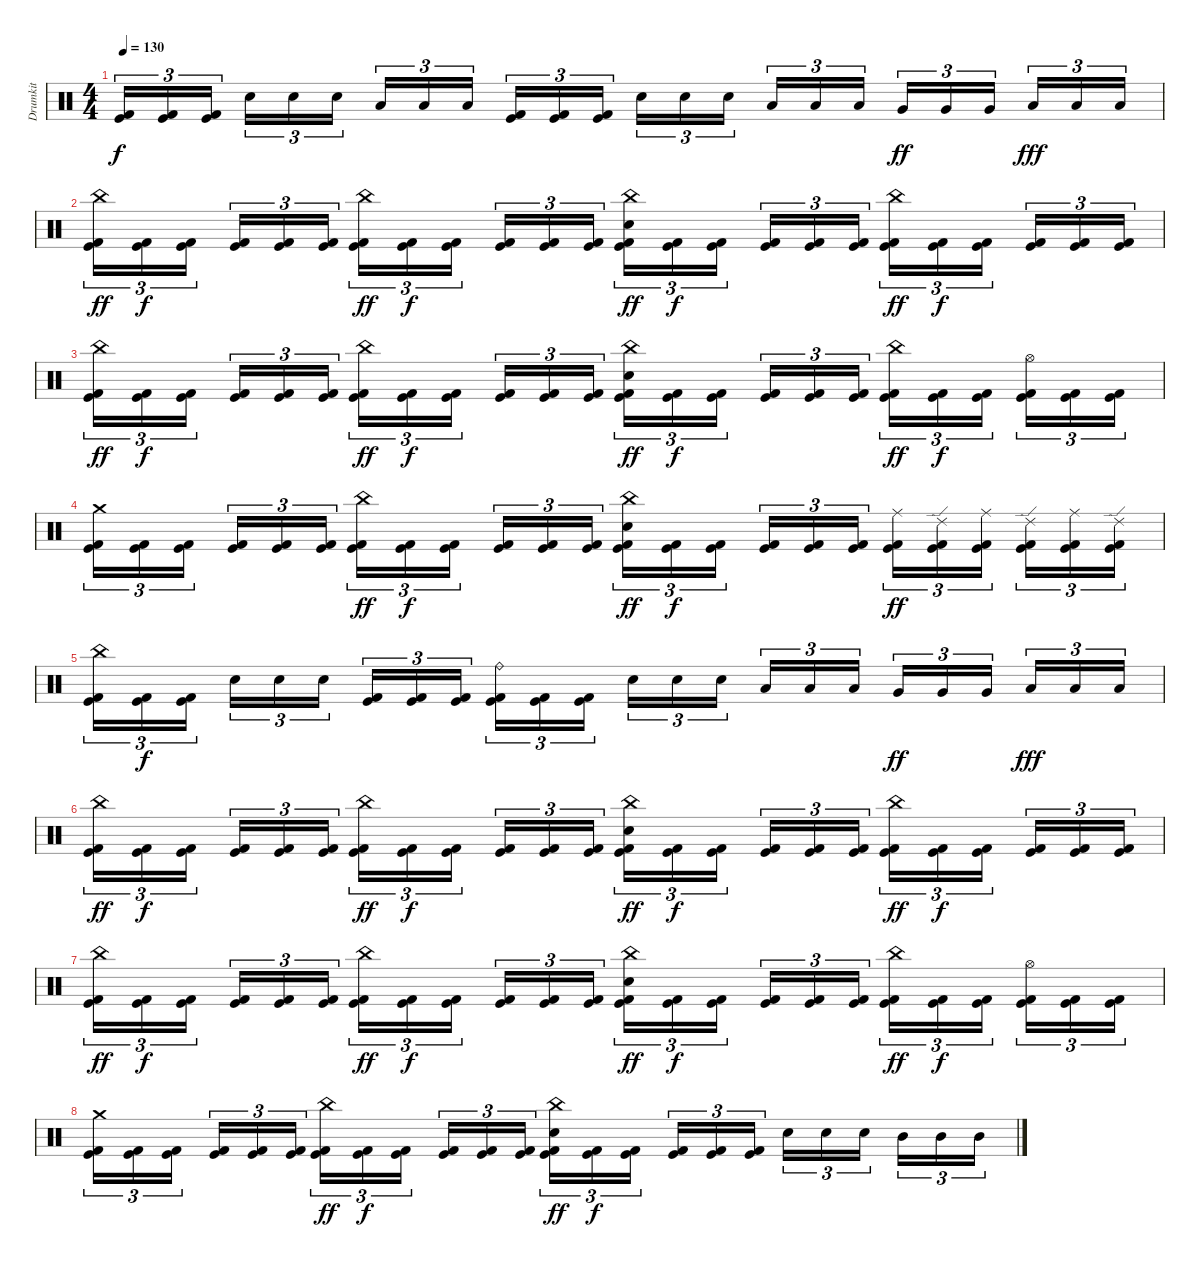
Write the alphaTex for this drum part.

\track ("Drumkit" "Drumkit") {instrument percussion}
\staff {score}
\articulation defaults
\ts (4 4)
\tempo 130
\clef neutral
\ks c
("Kick (hit)" "Kick (hit) 2").16{tu (3 2) dy f} ("Kick (hit)" "Kick (hit) 2").16{tu (3 2)} ("Kick (hit)" "Kick (hit) 2").16{tu (3 2) beam splitsecondary} "Electric Snare (hit)".16{tu (3 2)} "Electric Snare (hit)".16{tu (3 2)} "Electric Snare (hit)".16{tu (3 2)} "Low Tom (hit)".16{tu (3 2)} "Low Tom (hit)".16{tu (3 2)} "Low Tom (hit)".16{tu (3 2) beam splitsecondary} ("Kick (hit)" "Kick (hit) 2").16{tu (3 2)} ("Kick (hit)" "Kick (hit) 2").16{tu (3 2)} ("Kick (hit)" "Kick (hit) 2").16{tu (3 2)} "Electric Snare (hit)".16{tu (3 2)} "Electric Snare (hit)".16{tu (3 2)} "Electric Snare (hit)".16{tu (3 2) beam splitsecondary} "Low Tom (hit)".16{tu (3 2)} "Low Tom (hit)".16{tu (3 2)} "Low Tom (hit)".16{tu (3 2)} "Very Low Tom (hit)".16{tu (3 2) dy ff} "Very Low Tom (hit)".16{tu (3 2)} "Very Low Tom (hit)".16{tu (3 2) beam splitsecondary} "Low Floor Tom (hit)".16{tu (3 2) dy fff} "Low Floor Tom (hit)".16{tu (3 2)} "Low Floor Tom (hit)".16{tu (3 2)} |
("China (hit)" "Kick (hit)" "Kick (hit) 2").16{tu (3 2) dy ff} ("Kick (hit)" "Kick (hit) 2").16{tu (3 2) dy f} ("Kick (hit)" "Kick (hit) 2").16{tu (3 2) beam splitsecondary} ("Kick (hit)" "Kick (hit) 2").16{tu (3 2)} ("Kick (hit)" "Kick (hit) 2").16{tu (3 2)} ("Kick (hit)" "Kick (hit) 2").16{tu (3 2)} ("China (hit)" "Kick (hit)" "Kick (hit) 2").16{tu (3 2) dy ff} ("Kick (hit)" "Kick (hit) 2").16{tu (3 2) dy f} ("Kick (hit)" "Kick (hit) 2").16{tu (3 2) beam splitsecondary} ("Kick (hit)" "Kick (hit) 2").16{tu (3 2)} ("Kick (hit)" "Kick (hit) 2").16{tu (3 2)} ("Kick (hit)" "Kick (hit) 2").16{tu (3 2)} ("China (hit)" "Electric Snare (hit)" "Kick (hit)" "Kick (hit) 2").16{tu (3 2) dy ff} ("Kick (hit)" "Kick (hit) 2").16{tu (3 2) dy f} ("Kick (hit)" "Kick (hit) 2").16{tu (3 2) beam splitsecondary} ("Kick (hit)" "Kick (hit) 2").16{tu (3 2)} ("Kick (hit)" "Kick (hit) 2").16{tu (3 2)} ("Kick (hit)" "Kick (hit) 2").16{tu (3 2)} ("China (hit)" "Kick (hit)" "Kick (hit) 2").16{tu (3 2) dy ff} ("Kick (hit)" "Kick (hit) 2").16{tu (3 2) dy f} ("Kick (hit)" "Kick (hit) 2").16{tu (3 2) beam splitsecondary} ("Kick (hit)" "Kick (hit) 2").16{tu (3 2)} ("Kick (hit)" "Kick (hit) 2").16{tu (3 2)} ("Kick (hit)" "Kick (hit) 2").16{tu (3 2)} |
("China (hit)" "Kick (hit)" "Kick (hit) 2").16{tu (3 2) dy ff} ("Kick (hit)" "Kick (hit) 2").16{tu (3 2) dy f} ("Kick (hit)" "Kick (hit) 2").16{tu (3 2) beam splitsecondary} ("Kick (hit)" "Kick (hit) 2").16{tu (3 2)} ("Kick (hit)" "Kick (hit) 2").16{tu (3 2)} ("Kick (hit)" "Kick (hit) 2").16{tu (3 2)} ("China (hit)" "Kick (hit)" "Kick (hit) 2").16{tu (3 2) dy ff} ("Kick (hit)" "Kick (hit) 2").16{tu (3 2) dy f} ("Kick (hit)" "Kick (hit) 2").16{tu (3 2) beam splitsecondary} ("Kick (hit)" "Kick (hit) 2").16{tu (3 2)} ("Kick (hit)" "Kick (hit) 2").16{tu (3 2)} ("Kick (hit)" "Kick (hit) 2").16{tu (3 2)} ("China (hit)" "Electric Snare (hit)" "Kick (hit)" "Kick (hit) 2").16{tu (3 2) dy ff} ("Kick (hit)" "Kick (hit) 2").16{tu (3 2) dy f} ("Kick (hit)" "Kick (hit) 2").16{tu (3 2) beam splitsecondary} ("Kick (hit)" "Kick (hit) 2").16{tu (3 2)} ("Kick (hit)" "Kick (hit) 2").16{tu (3 2)} ("Kick (hit)" "Kick (hit) 2").16{tu (3 2)} ("China (hit)" "Kick (hit)" "Kick (hit) 2").16{tu (3 2) dy ff} ("Kick (hit)" "Kick (hit) 2").16{tu (3 2) dy f} ("Kick (hit)" "Kick (hit) 2").16{tu (3 2) beam splitsecondary} ("Hi-Hat (open)" "Kick (hit)" "Kick (hit) 2").16{tu (3 2)} ("Kick (hit)" "Kick (hit) 2").16{tu (3 2)} ("Kick (hit)" "Kick (hit) 2").16{tu (3 2)} |
("Crash medium (hit)" "Kick (hit)" "Kick (hit) 2").16{tu (3 2)} ("Kick (hit)" "Kick (hit) 2").16{tu (3 2)} ("Kick (hit)" "Kick (hit) 2").16{tu (3 2) beam splitsecondary} ("Kick (hit)" "Kick (hit) 2").16{tu (3 2)} ("Kick (hit)" "Kick (hit) 2").16{tu (3 2)} ("Kick (hit)" "Kick (hit) 2").16{tu (3 2)} ("China (hit)" "Kick (hit)" "Kick (hit) 2").16{tu (3 2) dy ff} ("Kick (hit)" "Kick (hit) 2").16{tu (3 2) dy f} ("Kick (hit)" "Kick (hit) 2").16{tu (3 2) beam splitsecondary} ("Kick (hit)" "Kick (hit) 2").16{tu (3 2)} ("Kick (hit)" "Kick (hit) 2").16{tu (3 2)} ("Kick (hit)" "Kick (hit) 2").16{tu (3 2)} ("China (hit)" "Electric Snare (hit)" "Kick (hit)" "Kick (hit) 2").16{tu (3 2) dy ff} ("Kick (hit)" "Kick (hit) 2").16{tu (3 2) dy f} ("Kick (hit)" "Kick (hit) 2").16{tu (3 2) beam splitsecondary} ("Kick (hit)" "Kick (hit) 2").16{tu (3 2)} ("Kick (hit)" "Kick (hit) 2").16{tu (3 2)} ("Kick (hit)" "Kick (hit) 2").16{tu (3 2)} ("Ride (middle)" "Kick (hit)" "Kick (hit) 2").16{tu (3 2) dy ff} ("Ride (edge) 2" "Kick (hit)" "Kick (hit) 2").16{tu (3 2)} ("Ride (middle)" "Kick (hit)" "Kick (hit) 2").16{tu (3 2) beam splitsecondary} ("Ride (edge) 2" "Kick (hit)" "Kick (hit) 2").16{tu (3 2)} ("Ride (middle)" "Kick (hit)" "Kick (hit) 2").16{tu (3 2)} ("Ride (edge) 2" "Kick (hit)" "Kick (hit) 2").16{tu (3 2)} |
("China (hit)" "Kick (hit)" "Kick (hit) 2").16{tu (3 2)} ("Kick (hit)" "Kick (hit) 2").16{tu (3 2) dy f} ("Kick (hit)" "Kick (hit) 2").16{tu (3 2) beam splitsecondary} "Electric Snare (hit)".16{tu (3 2)} "Electric Snare (hit)".16{tu (3 2)} "Electric Snare (hit)".16{tu (3 2)} ("Kick (hit)" "Kick (hit) 2").16{tu (3 2)} ("Kick (hit)" "Kick (hit) 2").16{tu (3 2)} ("Kick (hit)" "Kick (hit) 2").16{tu (3 2) beam splitsecondary} ("Ride (bell)" "Kick (hit)" "Kick (hit) 2").16{tu (3 2)} ("Kick (hit)" "Kick (hit) 2").16{tu (3 2)} ("Kick (hit)" "Kick (hit) 2").16{tu (3 2)} "Electric Snare (hit)".16{tu (3 2)} "Electric Snare (hit)".16{tu (3 2)} "Electric Snare (hit)".16{tu (3 2) beam splitsecondary} "Low Tom (hit)".16{tu (3 2)} "Low Tom (hit)".16{tu (3 2)} "Low Tom (hit)".16{tu (3 2)} "Very Low Tom (hit)".16{tu (3 2) dy ff} "Very Low Tom (hit)".16{tu (3 2)} "Very Low Tom (hit)".16{tu (3 2) beam splitsecondary} "Low Floor Tom (hit)".16{tu (3 2) dy fff} "Low Floor Tom (hit)".16{tu (3 2)} "Low Floor Tom (hit)".16{tu (3 2)} |
("China (hit)" "Kick (hit)" "Kick (hit) 2").16{tu (3 2) dy ff} ("Kick (hit)" "Kick (hit) 2").16{tu (3 2) dy f} ("Kick (hit)" "Kick (hit) 2").16{tu (3 2) beam splitsecondary} ("Kick (hit)" "Kick (hit) 2").16{tu (3 2)} ("Kick (hit)" "Kick (hit) 2").16{tu (3 2)} ("Kick (hit)" "Kick (hit) 2").16{tu (3 2)} ("China (hit)" "Kick (hit)" "Kick (hit) 2").16{tu (3 2) dy ff} ("Kick (hit)" "Kick (hit) 2").16{tu (3 2) dy f} ("Kick (hit)" "Kick (hit) 2").16{tu (3 2) beam splitsecondary} ("Kick (hit)" "Kick (hit) 2").16{tu (3 2)} ("Kick (hit)" "Kick (hit) 2").16{tu (3 2)} ("Kick (hit)" "Kick (hit) 2").16{tu (3 2)} ("China (hit)" "Electric Snare (hit)" "Kick (hit)" "Kick (hit) 2").16{tu (3 2) dy ff} ("Kick (hit)" "Kick (hit) 2").16{tu (3 2) dy f} ("Kick (hit)" "Kick (hit) 2").16{tu (3 2) beam splitsecondary} ("Kick (hit)" "Kick (hit) 2").16{tu (3 2)} ("Kick (hit)" "Kick (hit) 2").16{tu (3 2)} ("Kick (hit)" "Kick (hit) 2").16{tu (3 2)} ("China (hit)" "Kick (hit)" "Kick (hit) 2").16{tu (3 2) dy ff} ("Kick (hit)" "Kick (hit) 2").16{tu (3 2) dy f} ("Kick (hit)" "Kick (hit) 2").16{tu (3 2) beam splitsecondary} ("Kick (hit)" "Kick (hit) 2").16{tu (3 2)} ("Kick (hit)" "Kick (hit) 2").16{tu (3 2)} ("Kick (hit)" "Kick (hit) 2").16{tu (3 2)} |
("China (hit)" "Kick (hit)" "Kick (hit) 2").16{tu (3 2) dy ff} ("Kick (hit)" "Kick (hit) 2").16{tu (3 2) dy f} ("Kick (hit)" "Kick (hit) 2").16{tu (3 2) beam splitsecondary} ("Kick (hit)" "Kick (hit) 2").16{tu (3 2)} ("Kick (hit)" "Kick (hit) 2").16{tu (3 2)} ("Kick (hit)" "Kick (hit) 2").16{tu (3 2)} ("China (hit)" "Kick (hit)" "Kick (hit) 2").16{tu (3 2) dy ff} ("Kick (hit)" "Kick (hit) 2").16{tu (3 2) dy f} ("Kick (hit)" "Kick (hit) 2").16{tu (3 2) beam splitsecondary} ("Kick (hit)" "Kick (hit) 2").16{tu (3 2)} ("Kick (hit)" "Kick (hit) 2").16{tu (3 2)} ("Kick (hit)" "Kick (hit) 2").16{tu (3 2)} ("China (hit)" "Electric Snare (hit)" "Kick (hit)" "Kick (hit) 2").16{tu (3 2) dy ff} ("Kick (hit)" "Kick (hit) 2").16{tu (3 2) dy f} ("Kick (hit)" "Kick (hit) 2").16{tu (3 2) beam splitsecondary} ("Kick (hit)" "Kick (hit) 2").16{tu (3 2)} ("Kick (hit)" "Kick (hit) 2").16{tu (3 2)} ("Kick (hit)" "Kick (hit) 2").16{tu (3 2)} ("China (hit)" "Kick (hit)" "Kick (hit) 2").16{tu (3 2) dy ff} ("Kick (hit)" "Kick (hit) 2").16{tu (3 2) dy f} ("Kick (hit)" "Kick (hit) 2").16{tu (3 2) beam splitsecondary} ("Hi-Hat (open)" "Kick (hit)" "Kick (hit) 2").16{tu (3 2)} ("Kick (hit)" "Kick (hit) 2").16{tu (3 2)} ("Kick (hit)" "Kick (hit) 2").16{tu (3 2)} |
("Crash medium (hit)" "Kick (hit)" "Kick (hit) 2").16{tu (3 2)} ("Kick (hit)" "Kick (hit) 2").16{tu (3 2)} ("Kick (hit)" "Kick (hit) 2").16{tu (3 2) beam splitsecondary} ("Kick (hit)" "Kick (hit) 2").16{tu (3 2)} ("Kick (hit)" "Kick (hit) 2").16{tu (3 2)} ("Kick (hit)" "Kick (hit) 2").16{tu (3 2)} ("China (hit)" "Kick (hit)" "Kick (hit) 2").16{tu (3 2) dy ff} ("Kick (hit)" "Kick (hit) 2").16{tu (3 2) dy f} ("Kick (hit)" "Kick (hit) 2").16{tu (3 2) beam splitsecondary} ("Kick (hit)" "Kick (hit) 2").16{tu (3 2)} ("Kick (hit)" "Kick (hit) 2").16{tu (3 2)} ("Kick (hit)" "Kick (hit) 2").16{tu (3 2)} ("China (hit)" "Electric Snare (hit)" "Kick (hit)" "Kick (hit) 2").16{tu (3 2) dy ff} ("Kick (hit)" "Kick (hit) 2").16{tu (3 2) dy f} ("Kick (hit)" "Kick (hit) 2").16{tu (3 2) beam splitsecondary} ("Kick (hit)" "Kick (hit) 2").16{tu (3 2)} ("Kick (hit)" "Kick (hit) 2").16{tu (3 2)} ("Kick (hit)" "Kick (hit) 2").16{tu (3 2)} "Electric Snare (hit)".16{tu (3 2)} "Electric Snare (hit)".16{tu (3 2)} "Electric Snare (hit)".16{tu (3 2) beam splitsecondary} "Mid Tom (hit)".16{tu (3 2)} "Mid Tom (hit)".16{tu (3 2)} "Mid Tom (hit)".16{tu (3 2)}
